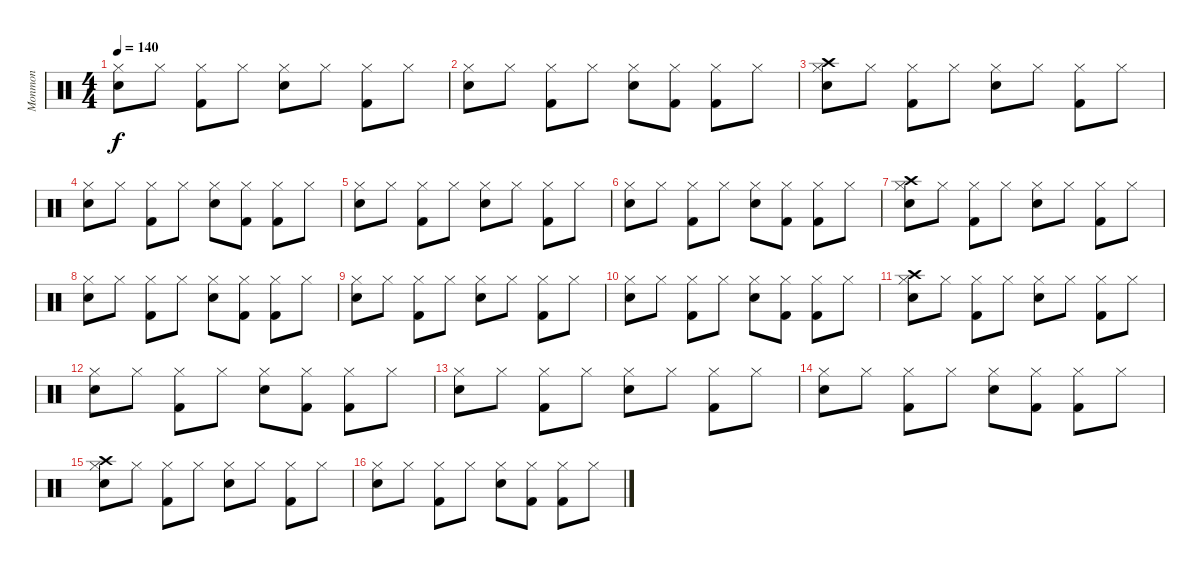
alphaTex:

\track ("Monmon" "Monmon") {instrument percussion}
\staff {score}
\articulation defaults
\ts (4 4)
\tempo 140
\clef neutral
\ks c
("Hi-Hat (closed)" "Snare (hit) 2").8{dy f} "Hi-Hat (closed)".8 ("Hi-Hat (closed)" "Kick (hit) 2").8 "Hi-Hat (closed)".8 ("Hi-Hat (closed)" "Snare (hit) 2").8 "Hi-Hat (closed)".8 ("Hi-Hat (closed)" "Kick (hit) 2").8 "Hi-Hat (closed)".8 |
("Hi-Hat (closed)" "Snare (hit) 2").8 "Hi-Hat (closed)".8 ("Hi-Hat (closed)" "Kick (hit) 2").8 "Hi-Hat (closed)".8 ("Hi-Hat (closed)" "Snare (hit) 2").8 ("Hi-Hat (closed)" "Kick (hit) 2").8 ("Hi-Hat (closed)" "Kick (hit) 2").8 "Hi-Hat (closed)".8 |
("Crash high (hit)" "Hi-Hat (closed)" "Snare (hit) 2").8 "Hi-Hat (closed)".8 ("Hi-Hat (closed)" "Kick (hit) 2").8 "Hi-Hat (closed)".8 ("Hi-Hat (closed)" "Snare (hit) 2").8 "Hi-Hat (closed)".8 ("Hi-Hat (closed)" "Kick (hit) 2").8 "Hi-Hat (closed)".8 |
("Hi-Hat (closed)" "Snare (hit) 2").8 "Hi-Hat (closed)".8 ("Hi-Hat (closed)" "Kick (hit) 2").8 "Hi-Hat (closed)".8 ("Hi-Hat (closed)" "Snare (hit) 2").8 ("Hi-Hat (closed)" "Kick (hit) 2").8 ("Hi-Hat (closed)" "Kick (hit) 2").8 "Hi-Hat (closed)".8 |
("Hi-Hat (closed)" "Snare (hit) 2").8 "Hi-Hat (closed)".8 ("Hi-Hat (closed)" "Kick (hit) 2").8 "Hi-Hat (closed)".8 ("Hi-Hat (closed)" "Snare (hit) 2").8 "Hi-Hat (closed)".8 ("Hi-Hat (closed)" "Kick (hit) 2").8 "Hi-Hat (closed)".8 |
("Hi-Hat (closed)" "Snare (hit) 2").8 "Hi-Hat (closed)".8 ("Hi-Hat (closed)" "Kick (hit) 2").8 "Hi-Hat (closed)".8 ("Hi-Hat (closed)" "Snare (hit) 2").8 ("Hi-Hat (closed)" "Kick (hit) 2").8 ("Hi-Hat (closed)" "Kick (hit) 2").8 "Hi-Hat (closed)".8 |
("Crash high (hit)" "Hi-Hat (closed)" "Snare (hit) 2").8 "Hi-Hat (closed)".8 ("Hi-Hat (closed)" "Kick (hit) 2").8 "Hi-Hat (closed)".8 ("Hi-Hat (closed)" "Snare (hit) 2").8 "Hi-Hat (closed)".8 ("Hi-Hat (closed)" "Kick (hit) 2").8 "Hi-Hat (closed)".8 |
("Hi-Hat (closed)" "Snare (hit) 2").8 "Hi-Hat (closed)".8 ("Hi-Hat (closed)" "Kick (hit) 2").8 "Hi-Hat (closed)".8 ("Hi-Hat (closed)" "Snare (hit) 2").8 ("Hi-Hat (closed)" "Kick (hit) 2").8 ("Hi-Hat (closed)" "Kick (hit) 2").8 "Hi-Hat (closed)".8 |
("Hi-Hat (closed)" "Snare (hit) 2").8 "Hi-Hat (closed)".8 ("Hi-Hat (closed)" "Kick (hit) 2").8 "Hi-Hat (closed)".8 ("Hi-Hat (closed)" "Snare (hit) 2").8 "Hi-Hat (closed)".8 ("Hi-Hat (closed)" "Kick (hit) 2").8 "Hi-Hat (closed)".8 |
("Hi-Hat (closed)" "Snare (hit) 2").8 "Hi-Hat (closed)".8 ("Hi-Hat (closed)" "Kick (hit) 2").8 "Hi-Hat (closed)".8 ("Hi-Hat (closed)" "Snare (hit) 2").8 ("Hi-Hat (closed)" "Kick (hit) 2").8 ("Hi-Hat (closed)" "Kick (hit) 2").8 "Hi-Hat (closed)".8 |
("Crash high (hit)" "Hi-Hat (closed)" "Snare (hit) 2").8 "Hi-Hat (closed)".8 ("Hi-Hat (closed)" "Kick (hit) 2").8 "Hi-Hat (closed)".8 ("Hi-Hat (closed)" "Snare (hit) 2").8 "Hi-Hat (closed)".8 ("Hi-Hat (closed)" "Kick (hit) 2").8 "Hi-Hat (closed)".8 |
("Hi-Hat (closed)" "Snare (hit) 2").8 "Hi-Hat (closed)".8 ("Hi-Hat (closed)" "Kick (hit) 2").8 "Hi-Hat (closed)".8 ("Hi-Hat (closed)" "Snare (hit) 2").8 ("Hi-Hat (closed)" "Kick (hit) 2").8 ("Hi-Hat (closed)" "Kick (hit) 2").8 "Hi-Hat (closed)".8 |
("Hi-Hat (closed)" "Snare (hit) 2").8 "Hi-Hat (closed)".8 ("Hi-Hat (closed)" "Kick (hit) 2").8 "Hi-Hat (closed)".8 ("Hi-Hat (closed)" "Snare (hit) 2").8 "Hi-Hat (closed)".8 ("Hi-Hat (closed)" "Kick (hit) 2").8 "Hi-Hat (closed)".8 |
("Hi-Hat (closed)" "Snare (hit) 2").8 "Hi-Hat (closed)".8 ("Hi-Hat (closed)" "Kick (hit) 2").8 "Hi-Hat (closed)".8 ("Hi-Hat (closed)" "Snare (hit) 2").8 ("Hi-Hat (closed)" "Kick (hit) 2").8 ("Hi-Hat (closed)" "Kick (hit) 2").8 "Hi-Hat (closed)".8 |
("Crash high (hit)" "Hi-Hat (closed)" "Snare (hit) 2").8 "Hi-Hat (closed)".8 ("Hi-Hat (closed)" "Kick (hit) 2").8 "Hi-Hat (closed)".8 ("Hi-Hat (closed)" "Snare (hit) 2").8 "Hi-Hat (closed)".8 ("Hi-Hat (closed)" "Kick (hit) 2").8 "Hi-Hat (closed)".8 |
("Hi-Hat (closed)" "Snare (hit) 2").8 "Hi-Hat (closed)".8 ("Hi-Hat (closed)" "Kick (hit) 2").8 "Hi-Hat (closed)".8 ("Hi-Hat (closed)" "Snare (hit) 2").8 ("Hi-Hat (closed)" "Kick (hit) 2").8 ("Hi-Hat (closed)" "Kick (hit) 2").8 "Hi-Hat (closed)".8
